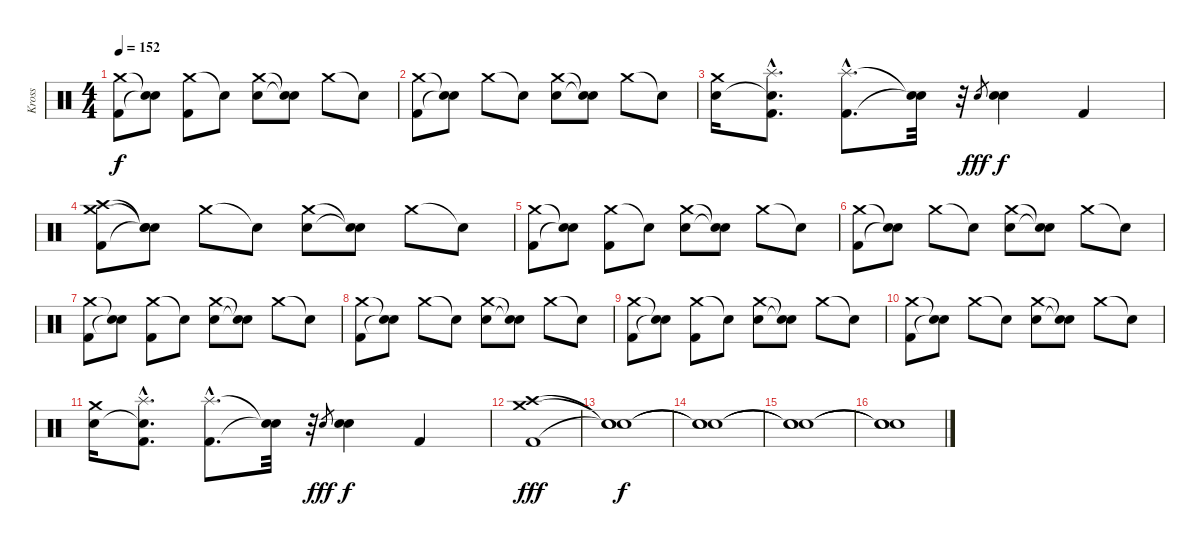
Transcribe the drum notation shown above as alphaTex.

\track ("Kross" "Kross") {instrument percussion}
\staff {score}
\articulation defaults
\ts (4 4)
\tempo 152
\clef neutral
\ks c
("Crash medium (hit)" "Kick (hit) 2").8{dy f} ("Snare (hit)"{t} "Snare (hit)"{t}).8 ("Crash medium (hit)" "Kick (hit) 2").8 "Snare (hit)"{t}.8 ("Crash medium (hit)" "Electric Snare (hit)").8 ("Snare (hit)"{t} "Snare (hit)"{t}).8 "Crash medium (hit)".8 "Snare (hit)"{t}.8 |
("Crash medium (hit)" "Kick (hit) 2").8 ("Snare (hit)"{t} "Snare (hit)"{t}).8 "Crash medium (hit)".8 "Snare (hit)"{t}.8 ("Crash medium (hit)" "Electric Snare (hit)").8 ("Snare (hit)"{t} "Snare (hit)"{t}).8 "Crash medium (hit)".8 "Snare (hit)"{t}.8 |
("Crash medium (hit)" "Electric Snare (hit)").16 ("Splash (hit)"{hac} "Snare (hit)"{hac t} "Kick (hit) 2"{hac}).8{d} ("Splash (hit)"{hac} "Kick (hit) 2"{hac}).8{d} ("Snare (hit)"{t} "Snare (hit)"{t}).32 r.32 "Electric Snare (hit)".8{gr dy fff} ("Electric Snare (hit)" "Electric Snare (hit)").4{dy f} "Kick (hit) 2".4 |
("Crash medium (hit)" "Crash high (hit)" "Kick (hit) 2").8 ("Snare (hit)"{t} "Snare (hit)"{t} "Snare (hit)"{t}).8 "Crash medium (hit)".8 "Snare (hit)"{t}.8 ("Crash medium (hit)" "Electric Snare (hit)").8 ("Snare (hit)"{t} "Snare (hit)"{t}).8 "Crash medium (hit)".8 "Snare (hit)"{t}.8 |
("Crash medium (hit)" "Kick (hit) 2").8 ("Snare (hit)"{t} "Snare (hit)"{t}).8 ("Crash medium (hit)" "Kick (hit) 2").8 "Snare (hit)"{t}.8 ("Crash medium (hit)" "Electric Snare (hit)").8 ("Snare (hit)"{t} "Snare (hit)"{t}).8 "Crash medium (hit)".8 "Snare (hit)"{t}.8 |
("Crash medium (hit)" "Kick (hit) 2").8 ("Snare (hit)"{t} "Snare (hit)"{t}).8 "Crash medium (hit)".8 "Snare (hit)"{t}.8 ("Crash medium (hit)" "Electric Snare (hit)").8 ("Snare (hit)"{t} "Snare (hit)"{t}).8 "Crash medium (hit)".8 "Snare (hit)"{t}.8 |
("Crash medium (hit)" "Kick (hit) 2").8 ("Snare (hit)"{t} "Snare (hit)"{t}).8 ("Crash medium (hit)" "Kick (hit) 2").8 "Snare (hit)"{t}.8 ("Crash medium (hit)" "Electric Snare (hit)").8 ("Snare (hit)"{t} "Snare (hit)"{t}).8 "Crash medium (hit)".8 "Snare (hit)"{t}.8 |
("Crash medium (hit)" "Kick (hit) 2").8 ("Snare (hit)"{t} "Snare (hit)"{t}).8 "Crash medium (hit)".8 "Snare (hit)"{t}.8 ("Crash medium (hit)" "Electric Snare (hit)").8 ("Snare (hit)"{t} "Snare (hit)"{t}).8 "Crash medium (hit)".8 "Snare (hit)"{t}.8 |
("Crash medium (hit)" "Kick (hit) 2").8 ("Snare (hit)"{t} "Snare (hit)"{t}).8 ("Crash medium (hit)" "Kick (hit) 2").8 "Snare (hit)"{t}.8 ("Crash medium (hit)" "Electric Snare (hit)").8 ("Snare (hit)"{t} "Snare (hit)"{t}).8 "Crash medium (hit)".8 "Snare (hit)"{t}.8 |
("Crash medium (hit)" "Kick (hit) 2").8 ("Snare (hit)"{t} "Snare (hit)"{t}).8 "Crash medium (hit)".8 "Snare (hit)"{t}.8 ("Crash medium (hit)" "Electric Snare (hit)").8 ("Snare (hit)"{t} "Snare (hit)"{t}).8 "Crash medium (hit)".8 "Snare (hit)"{t}.8 |
("Crash medium (hit)" "Electric Snare (hit)").16 ("Splash (hit)"{hac} "Snare (hit)"{hac t} "Kick (hit) 2"{hac}).8{d} ("Splash (hit)"{hac} "Kick (hit) 2"{hac}).8{d} ("Snare (hit)"{t} "Snare (hit)"{t}).32 r.32 "Electric Snare (hit)".8{gr dy fff} ("Electric Snare (hit)" "Electric Snare (hit)").4{dy f} "Kick (hit) 2".4 |
("Crash medium (hit)" "Crash high (hit)" "Kick (hit) 2").1{dy fff} |
("Snare (hit)"{t} "Snare (hit)"{t} "Snare (hit)"{t}).1{dy f} |
("Snare (hit)"{t} "Snare (hit)"{t} "Snare (hit)"{t}).1 |
("Snare (hit)"{t} "Snare (hit)"{t} "Snare (hit)"{t}).1 |
("Snare (hit)"{t} "Snare (hit)"{t} "Snare (hit)"{t}).1
